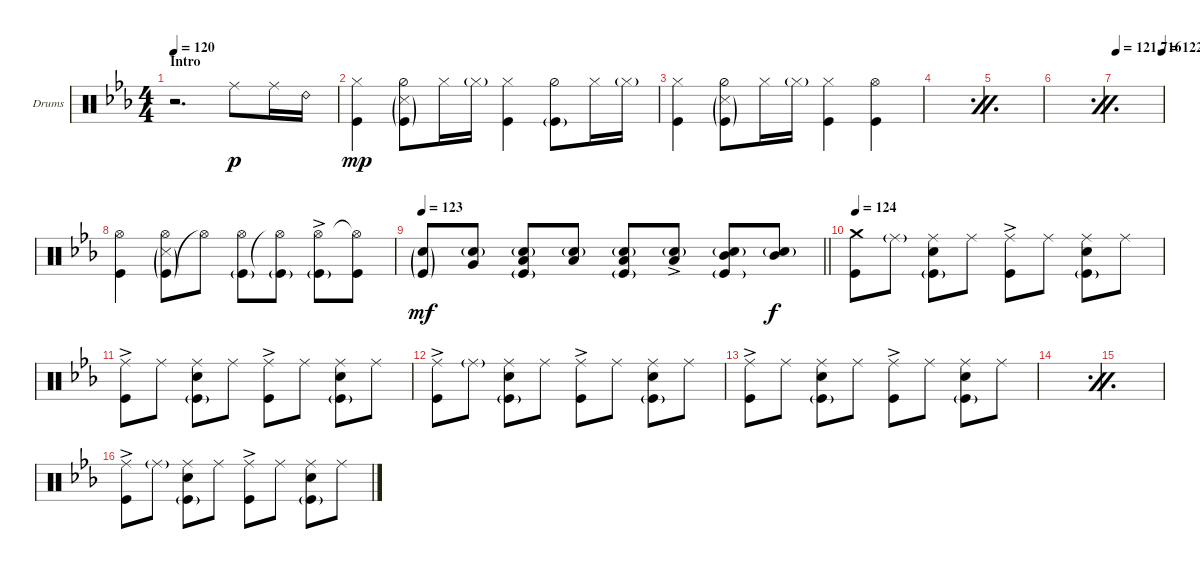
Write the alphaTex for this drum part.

\bracketExtendMode groupsimilarinstruments
\firstSystemTrackNameOrientation horizontal
\otherSystemsTrackNameOrientation horizontal
\track ("Drumkit" "Drums") {instrument percussion}
\staff {score}
\articulation defaults
\ts (4 4)
\section ("" "Intro")
\tempo 120
\clef neutral
\ks cminor
r.2{d dy p} "Ride (middle)".8 "Ride (middle)".16 "Ride (bell) 2".16 |
("Hi-Hat (closed)" "Kick (hit)").4{dy mp} ("Kick (hit)"{g} "Hi-Hat (half)" "Snare (side stick) 3"{g}).8 "Hi-Hat (closed)".16 "Hi-Hat (closed)"{g}.16 ("Hi-Hat (closed)" "Kick (hit)").4 ("Kick (hit)"{g} "Hi-Hat (half)").8 "Hi-Hat (closed)".16 "Hi-Hat (closed)"{g}.16 |
("Hi-Hat (closed)" "Kick (hit)").4 ("Kick (hit)"{g} "Hi-Hat (half)" "Snare (side stick) 3"{g}).8 "Hi-Hat (closed)".16 "Hi-Hat (closed)"{g}.16 ("Hi-Hat (closed)" "Kick (hit)").4 ("Kick (hit)" "Hi-Hat (open)").4 |
\simile firstofdouble
|
\simile secondofdouble
|
\simile firstofdouble
|
\tempo
121.716
\tempo (122 0.99375)
\simile secondofdouble
|
\simile none
("Kick (hit)" "Hi-Hat (open)").4 ("Kick (hit)"{g} "Hi-Hat (open)" "Snare (side stick) 3"{g}).8 "Hi-Hat (open)"{t}.8 ("Hi-Hat (open)" "Kick (hit)"{g}).8 ("Kick (hit)"{g} "Hi-Hat (open)"{t}).8 ("Kick (hit)"{g} "Hi-Hat (open)"{ac}).8 ("Kick (hit)" "Hi-Hat (open)"{t}).8 |
\tempo 123
\barLineRight lightlight
("Kick (hit)"{g} "Snare (hit) 2"{g}).8{dy mf} ("Snare (hit) 2"{g} "Very Low Tom (hit)").8 ("Snare (hit) 2"{g} "Kick (hit)"{g} "Low Tom (hit)").8 ("Snare (hit) 2"{g} "Low Tom (hit)").8 ("Snare (hit) 2"{g} "Kick (hit)"{g} "Low Tom (hit)").8 ("Snare (hit) 2"{g} "Low Tom (hit)"{ac}).8 ("Snare (hit) 2"{g} "Kick (hit)"{g} "Mid Tom (hit)").8 ("Snare (hit) 2"{g} "Mid Tom (hit)").8{dy f} |
\tempo 124
("Kick (hit)" "Crash medium (hit)").8 "Ride (middle)"{g}.8 ("Snare (hit) 2" "Ride (middle)" "Kick (hit)"{g}).8 "Ride (middle)".8 ("Kick (hit)" "Ride (middle)"{ac}).8 "Ride (middle)".8 ("Snare (hit) 2" "Ride (middle)" "Kick (hit)"{g}).8 "Ride (middle)".8 |
("Kick (hit)" "Ride (middle)"{ac}).8 "Ride (middle)".8 ("Snare (hit) 2" "Ride (middle)" "Kick (hit)"{g}).8 "Ride (middle)".8 ("Kick (hit)" "Ride (middle)"{ac}).8 "Ride (middle)".8 ("Snare (hit) 2" "Ride (middle)" "Kick (hit)"{g}).8 "Ride (middle)".8 |
("Kick (hit)" "Ride (middle)"{ac}).8 "Ride (middle)"{g}.8 ("Snare (hit) 2" "Ride (middle)" "Kick (hit)"{g}).8 "Ride (middle)".8 ("Kick (hit)" "Ride (middle)"{ac}).8 "Ride (middle)".8 ("Snare (hit) 2" "Ride (middle)" "Kick (hit)"{g}).8 "Ride (middle)".8 |
("Kick (hit)" "Ride (middle)"{ac}).8 "Ride (middle)".8 ("Snare (hit) 2" "Ride (middle)" "Kick (hit)"{g}).8 "Ride (middle)".8 ("Kick (hit)" "Ride (middle)"{ac}).8 "Ride (middle)".8 ("Snare (hit) 2" "Ride (middle)" "Kick (hit)"{g}).8 "Ride (middle)".8 |
\simile firstofdouble
|
\simile secondofdouble
|
\simile none
("Kick (hit)" "Ride (middle)"{ac}).8 "Ride (middle)"{g}.8 ("Snare (hit) 2" "Ride (middle)" "Kick (hit)"{g}).8 "Ride (middle)".8 ("Kick (hit)" "Ride (middle)"{ac}).8 "Ride (middle)".8 ("Snare (hit) 2" "Ride (middle)" "Kick (hit)"{g}).8 "Ride (middle)".8
